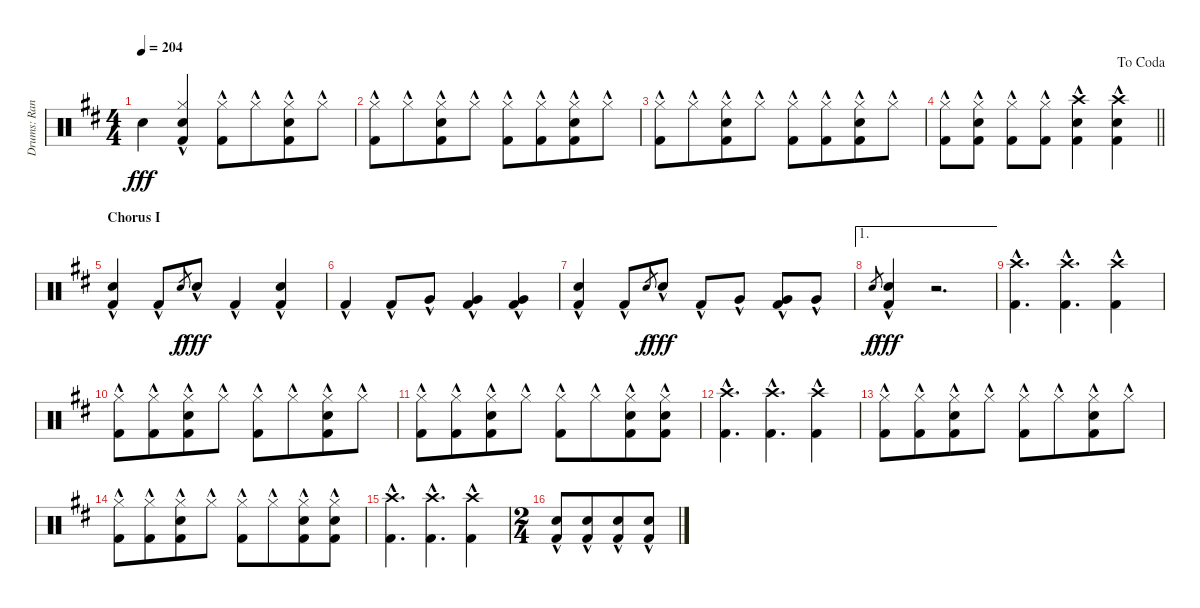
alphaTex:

\track ("Drums: Randy" "Drums: Ran") {instrument percussion}
\staff {score}
\articulation defaults
\ts (4 4)
\tempo 204
\clef neutral
\ks d "Snare (hit)"{t}.4{dy fff}
("Hi-Hat (closed)"{hac} "Snare (hit) 2"{hac} "Kick (hit) 2"{hac}).4 ("Hi-Hat (closed)"{hac} "Kick (hit) 2"{hac}).8 "Hi-Hat (closed)"{hac}.8{beam merge} ("Hi-Hat (closed)"{hac} "Snare (hit) 2"{hac} "Kick (hit) 2"{hac}).8 "Hi-Hat (closed)"{hac}.8 |
("Hi-Hat (closed)"{hac} "Kick (hit) 2"{hac}).8 "Hi-Hat (closed)"{hac}.8{beam merge} ("Hi-Hat (closed)"{hac} "Snare (hit) 2"{hac} "Kick (hit) 2"{hac}).8 "Hi-Hat (closed)"{hac}.8 ("Hi-Hat (closed)"{hac} "Kick (hit) 2"{hac}).8 ("Hi-Hat (closed)"{hac} "Kick (hit) 2"{hac}).8{beam merge} ("Hi-Hat (closed)"{hac} "Snare (hit) 2"{hac} "Kick (hit) 2"{hac}).8 "Hi-Hat (closed)"{hac}.8 |
("Hi-Hat (closed)"{hac} "Kick (hit) 2"{hac}).8 "Hi-Hat (closed)"{hac}.8{beam merge} ("Hi-Hat (closed)"{hac} "Snare (hit) 2"{hac} "Kick (hit) 2"{hac}).8 "Hi-Hat (closed)"{hac}.8 ("Hi-Hat (closed)"{hac} "Kick (hit) 2"{hac}).8 ("Hi-Hat (closed)"{hac} "Kick (hit) 2"{hac}).8{beam merge} ("Hi-Hat (closed)"{hac} "Snare (hit) 2"{hac} "Kick (hit) 2"{hac}).8 "Hi-Hat (closed)"{hac}.8 |
\jump dacoda
\barLineRight lightlight
("Hi-Hat (closed)"{hac} "Kick (hit) 2"{hac}).8{beam merge} ("Hi-Hat (closed)"{hac} "Snare (hit) 2"{hac} "Kick (hit) 2"{hac}).8 ("Hi-Hat (closed)"{hac} "Kick (hit) 2"{hac}).8 ("Hi-Hat (closed)"{hac} "Kick (hit) 2"{hac}).8{beam merge} ("Crash high (hit)"{hac} "Snare (hit) 2"{hac} "Kick (hit) 2"{hac}).4 ("Crash high (hit)"{hac} "Snare (hit) 2"{hac} "Kick (hit) 2"{hac}).4 |
\section ("" "Chorus I")
("Snare (hit) 2"{hac} "Kick (hit) 2"{hac}).4 "Kick (hit) 2"{hac}.8 "Snare (hit) 2".8{gr dy f} "Snare (hit) 2"{hac}.8{dy fff} "Kick (hit) 2"{hac}.4 ("Snare (hit) 2"{hac} "Kick (hit) 2"{hac}).4 |
"Kick (hit) 2"{hac}.4 "Kick (hit) 2"{hac}.8 "Very Low Tom (hit)"{hac}.8 ("Very Low Tom (hit)"{hac} "Kick (hit) 2"{hac}).4 ("Very Low Tom (hit)"{hac} "Kick (hit) 2"{hac}).4 |
("Snare (hit) 2"{hac} "Kick (hit) 2"{hac}).4 "Kick (hit) 2"{hac}.8 "Snare (hit) 2".8{gr dy f} "Snare (hit) 2"{hac}.8{dy fff} "Kick (hit) 2"{hac}.8 "Very Low Tom (hit)"{hac}.8 ("Very Low Tom (hit)"{hac} "Kick (hit) 2"{hac}).8 "Very Low Tom (hit)"{hac}.8 |
\ae 1 "Snare (hit) 2".8{gr dy f}
("Snare (hit) 2"{hac} "Kick (hit) 2"{hac}).4{dy fff} r.2{d} |
("Crash high (hit)"{hac} "Kick (hit) 2"{hac}).4{d} ("Crash high (hit)"{hac} "Kick (hit) 2"{hac}).4{d} ("Crash high (hit)"{hac} "Kick (hit) 2"{hac}).4 |
("Hi-Hat (closed)"{hac} "Kick (hit) 2"{hac}).8 ("Hi-Hat (closed)"{hac} "Kick (hit) 2"{hac}).8{beam merge} ("Hi-Hat (closed)"{hac} "Snare (hit) 2"{hac} "Kick (hit) 2"{hac}).8 "Hi-Hat (closed)"{hac}.8 ("Hi-Hat (closed)"{hac} "Kick (hit) 2"{hac}).8 "Hi-Hat (closed)"{hac}.8{beam merge} ("Hi-Hat (closed)"{hac} "Snare (hit) 2"{hac} "Kick (hit) 2"{hac}).8 "Hi-Hat (closed)"{hac}.8 |
("Hi-Hat (closed)"{hac} "Kick (hit) 2"{hac}).8 ("Hi-Hat (closed)"{hac} "Kick (hit) 2"{hac}).8{beam merge} ("Hi-Hat (closed)"{hac} "Snare (hit) 2"{hac} "Kick (hit) 2"{hac}).8 "Hi-Hat (closed)"{hac}.8 ("Hi-Hat (closed)"{hac} "Kick (hit) 2"{hac}).8 "Hi-Hat (closed)"{hac}.8{beam merge} ("Hi-Hat (closed)"{hac} "Snare (hit) 2"{hac} "Kick (hit) 2"{hac}).8 ("Hi-Hat (closed)"{hac} "Snare (hit) 2"{hac} "Kick (hit) 2"{hac}).8 |
("Crash high (hit)"{hac} "Kick (hit) 2"{hac}).4{d} ("Crash high (hit)"{hac} "Kick (hit) 2"{hac}).4{d} ("Crash high (hit)"{hac} "Kick (hit) 2"{hac}).4 |
("Hi-Hat (closed)"{hac} "Kick (hit) 2"{hac}).8 ("Hi-Hat (closed)"{hac} "Kick (hit) 2"{hac}).8{beam merge} ("Hi-Hat (closed)"{hac} "Snare (hit) 2"{hac} "Kick (hit) 2"{hac}).8 "Hi-Hat (closed)"{hac}.8 ("Hi-Hat (closed)"{hac} "Kick (hit) 2"{hac}).8 "Hi-Hat (closed)"{hac}.8{beam merge} ("Hi-Hat (closed)"{hac} "Snare (hit) 2"{hac} "Kick (hit) 2"{hac}).8 "Hi-Hat (closed)"{hac}.8 |
("Hi-Hat (closed)"{hac} "Kick (hit) 2"{hac}).8 ("Hi-Hat (closed)"{hac} "Kick (hit) 2"{hac}).8{beam merge} ("Hi-Hat (closed)"{hac} "Snare (hit) 2"{hac} "Kick (hit) 2"{hac}).8 "Hi-Hat (closed)"{hac}.8 ("Hi-Hat (closed)"{hac} "Kick (hit) 2"{hac}).8 "Hi-Hat (closed)"{hac}.8{beam merge} ("Hi-Hat (closed)"{hac} "Snare (hit) 2"{hac} "Kick (hit) 2"{hac}).8 ("Hi-Hat (closed)"{hac} "Snare (hit) 2"{hac} "Kick (hit) 2"{hac}).8 |
("Crash high (hit)"{hac} "Kick (hit) 2"{hac}).4{d} ("Crash high (hit)"{hac} "Kick (hit) 2"{hac}).4{d} ("Crash high (hit)"{hac} "Kick (hit) 2"{hac}).4 |
\ts (2 4)
("Snare (hit) 2"{hac} "Kick (hit) 2"{hac}).8{beam merge} ("Snare (hit) 2"{hac} "Kick (hit) 2"{hac}).8{beam merge} ("Snare (hit) 2"{hac} "Kick (hit) 2"{hac}).8{beam merge} ("Snare (hit) 2"{hac} "Kick (hit) 2"{hac}).8
